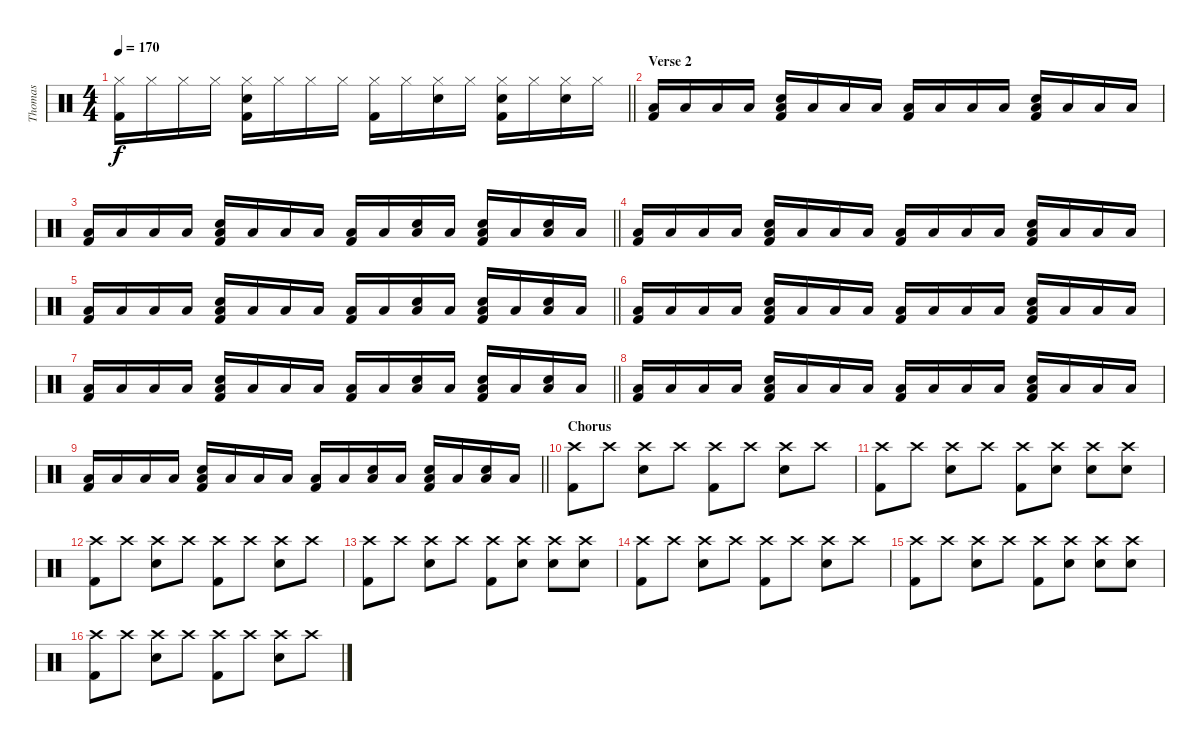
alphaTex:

\track ("Thomas" "Thomas") {instrument percussion}
\staff {score}
\articulation defaults
\ts (4 4)
\tempo 170
\clef neutral
\barLineRight lightlight
\ks c
("Hi-Hat (closed)" "Kick (hit) 2").16{dy f} "Hi-Hat (closed)".16 "Hi-Hat (closed)".16 "Hi-Hat (closed)".16 ("Hi-Hat (closed)" "Snare (hit) 2" "Kick (hit) 2").16 "Hi-Hat (closed)".16 "Hi-Hat (closed)".16 "Hi-Hat (closed)".16 ("Hi-Hat (closed)" "Kick (hit) 2").16 "Hi-Hat (closed)".16 ("Hi-Hat (closed)" "Snare (hit) 2").16 "Hi-Hat (closed)".16 ("Hi-Hat (closed)" "Snare (hit) 2" "Kick (hit) 2").16 "Hi-Hat (closed)".16 ("Hi-Hat (closed)" "Snare (hit) 2").16 "Hi-Hat (closed)".16 |
\section ("" "Verse 2")
("Low Floor Tom (hit)" "Kick (hit) 2").16 "Low Floor Tom (hit)".16 "Low Floor Tom (hit)".16 "Low Floor Tom (hit)".16 ("Low Floor Tom (hit)" "Snare (hit) 2" "Kick (hit) 2").16 "Low Floor Tom (hit)".16 "Low Floor Tom (hit)".16 "Low Floor Tom (hit)".16 ("Low Floor Tom (hit)" "Kick (hit) 2").16 "Low Floor Tom (hit)".16 "Low Floor Tom (hit)".16 "Low Floor Tom (hit)".16 ("Low Floor Tom (hit)" "Snare (hit) 2" "Kick (hit) 2").16 "Low Floor Tom (hit)".16 "Low Floor Tom (hit)".16 "Low Floor Tom (hit)".16 |
\barLineRight lightlight
("Low Floor Tom (hit)" "Kick (hit) 2").16 "Low Floor Tom (hit)".16 "Low Floor Tom (hit)".16 "Low Floor Tom (hit)".16 ("Low Floor Tom (hit)" "Snare (hit) 2" "Kick (hit) 2").16 "Low Floor Tom (hit)".16 "Low Floor Tom (hit)".16 "Low Floor Tom (hit)".16 ("Low Floor Tom (hit)" "Kick (hit) 2").16 "Low Floor Tom (hit)".16 ("Low Floor Tom (hit)" "Snare (hit) 2").16 "Low Floor Tom (hit)".16 ("Low Floor Tom (hit)" "Snare (hit) 2" "Kick (hit) 2").16 "Low Floor Tom (hit)".16 ("Low Floor Tom (hit)" "Snare (hit) 2").16 "Low Floor Tom (hit)".16 |
("Low Floor Tom (hit)" "Kick (hit) 2").16 "Low Floor Tom (hit)".16 "Low Floor Tom (hit)".16 "Low Floor Tom (hit)".16 ("Low Floor Tom (hit)" "Snare (hit) 2" "Kick (hit) 2").16 "Low Floor Tom (hit)".16 "Low Floor Tom (hit)".16 "Low Floor Tom (hit)".16 ("Low Floor Tom (hit)" "Kick (hit) 2").16 "Low Floor Tom (hit)".16 "Low Floor Tom (hit)".16 "Low Floor Tom (hit)".16 ("Low Floor Tom (hit)" "Snare (hit) 2" "Kick (hit) 2").16 "Low Floor Tom (hit)".16 "Low Floor Tom (hit)".16 "Low Floor Tom (hit)".16 |
\barLineRight lightlight
("Low Floor Tom (hit)" "Kick (hit) 2").16 "Low Floor Tom (hit)".16 "Low Floor Tom (hit)".16 "Low Floor Tom (hit)".16 ("Low Floor Tom (hit)" "Snare (hit) 2" "Kick (hit) 2").16 "Low Floor Tom (hit)".16 "Low Floor Tom (hit)".16 "Low Floor Tom (hit)".16 ("Low Floor Tom (hit)" "Kick (hit) 2").16 "Low Floor Tom (hit)".16 ("Low Floor Tom (hit)" "Snare (hit) 2").16 "Low Floor Tom (hit)".16 ("Low Floor Tom (hit)" "Snare (hit) 2" "Kick (hit) 2").16 "Low Floor Tom (hit)".16 ("Low Floor Tom (hit)" "Snare (hit) 2").16 "Low Floor Tom (hit)".16 |
("Low Floor Tom (hit)" "Kick (hit) 2").16 "Low Floor Tom (hit)".16 "Low Floor Tom (hit)".16 "Low Floor Tom (hit)".16 ("Low Floor Tom (hit)" "Snare (hit) 2" "Kick (hit) 2").16 "Low Floor Tom (hit)".16 "Low Floor Tom (hit)".16 "Low Floor Tom (hit)".16 ("Low Floor Tom (hit)" "Kick (hit) 2").16 "Low Floor Tom (hit)".16 "Low Floor Tom (hit)".16 "Low Floor Tom (hit)".16 ("Low Floor Tom (hit)" "Snare (hit) 2" "Kick (hit) 2").16 "Low Floor Tom (hit)".16 "Low Floor Tom (hit)".16 "Low Floor Tom (hit)".16 |
\barLineRight lightlight
("Low Floor Tom (hit)" "Kick (hit) 2").16 "Low Floor Tom (hit)".16 "Low Floor Tom (hit)".16 "Low Floor Tom (hit)".16 ("Low Floor Tom (hit)" "Snare (hit) 2" "Kick (hit) 2").16 "Low Floor Tom (hit)".16 "Low Floor Tom (hit)".16 "Low Floor Tom (hit)".16 ("Low Floor Tom (hit)" "Kick (hit) 2").16 "Low Floor Tom (hit)".16 ("Low Floor Tom (hit)" "Snare (hit) 2").16 "Low Floor Tom (hit)".16 ("Low Floor Tom (hit)" "Snare (hit) 2" "Kick (hit) 2").16 "Low Floor Tom (hit)".16 ("Low Floor Tom (hit)" "Snare (hit) 2").16 "Low Floor Tom (hit)".16 |
("Low Floor Tom (hit)" "Kick (hit) 2").16 "Low Floor Tom (hit)".16 "Low Floor Tom (hit)".16 "Low Floor Tom (hit)".16 ("Low Floor Tom (hit)" "Snare (hit) 2" "Kick (hit) 2").16 "Low Floor Tom (hit)".16 "Low Floor Tom (hit)".16 "Low Floor Tom (hit)".16 ("Low Floor Tom (hit)" "Kick (hit) 2").16 "Low Floor Tom (hit)".16 "Low Floor Tom (hit)".16 "Low Floor Tom (hit)".16 ("Low Floor Tom (hit)" "Snare (hit) 2" "Kick (hit) 2").16 "Low Floor Tom (hit)".16 "Low Floor Tom (hit)".16 "Low Floor Tom (hit)".16 |
\barLineRight lightlight
("Low Floor Tom (hit)" "Kick (hit) 2").16 "Low Floor Tom (hit)".16 "Low Floor Tom (hit)".16 "Low Floor Tom (hit)".16 ("Low Floor Tom (hit)" "Snare (hit) 2" "Kick (hit) 2").16 "Low Floor Tom (hit)".16 "Low Floor Tom (hit)".16 "Low Floor Tom (hit)".16 ("Low Floor Tom (hit)" "Kick (hit) 2").16 "Low Floor Tom (hit)".16 ("Low Floor Tom (hit)" "Snare (hit) 2").16 "Low Floor Tom (hit)".16 ("Low Floor Tom (hit)" "Snare (hit) 2" "Kick (hit) 2").16 "Low Floor Tom (hit)".16 ("Low Floor Tom (hit)" "Snare (hit) 2").16 "Low Floor Tom (hit)".16 |
\section ("" "Chorus")
("Crash high (hit)" "Kick (hit) 2").8 "Crash high (hit)".8 ("Crash high (hit)" "Snare (hit) 2").8 "Crash high (hit)".8 ("Crash high (hit)" "Kick (hit) 2").8 "Crash high (hit)".8 ("Crash high (hit)" "Snare (hit) 2").8 "Crash high (hit)".8 |
("Crash high (hit)" "Kick (hit) 2").8 "Crash high (hit)".8 ("Crash high (hit)" "Snare (hit) 2").8 "Crash high (hit)".8 ("Crash high (hit)" "Kick (hit) 2").8 ("Crash high (hit)" "Snare (hit) 2").8 ("Crash high (hit)" "Snare (hit) 2").8 ("Crash high (hit)" "Snare (hit) 2").8 |
("Crash high (hit)" "Kick (hit) 2").8 "Crash high (hit)".8 ("Crash high (hit)" "Snare (hit) 2").8 "Crash high (hit)".8 ("Crash high (hit)" "Kick (hit) 2").8 "Crash high (hit)".8 ("Crash high (hit)" "Snare (hit) 2").8 "Crash high (hit)".8 |
("Crash high (hit)" "Kick (hit) 2").8 "Crash high (hit)".8 ("Crash high (hit)" "Snare (hit) 2").8 "Crash high (hit)".8 ("Crash high (hit)" "Kick (hit) 2").8 ("Crash high (hit)" "Snare (hit) 2").8 ("Crash high (hit)" "Snare (hit) 2").8 ("Crash high (hit)" "Snare (hit) 2").8 |
("Crash high (hit)" "Kick (hit) 2").8 "Crash high (hit)".8 ("Crash high (hit)" "Snare (hit) 2").8 "Crash high (hit)".8 ("Crash high (hit)" "Kick (hit) 2").8 "Crash high (hit)".8 ("Crash high (hit)" "Snare (hit) 2").8 "Crash high (hit)".8 |
("Crash high (hit)" "Kick (hit) 2").8 "Crash high (hit)".8 ("Crash high (hit)" "Snare (hit) 2").8 "Crash high (hit)".8 ("Crash high (hit)" "Kick (hit) 2").8 ("Crash high (hit)" "Snare (hit) 2").8 ("Crash high (hit)" "Snare (hit) 2").8 ("Crash high (hit)" "Snare (hit) 2").8 |
("Crash high (hit)" "Kick (hit) 2").8 "Crash high (hit)".8 ("Crash high (hit)" "Snare (hit) 2").8 "Crash high (hit)".8 ("Crash high (hit)" "Kick (hit) 2").8 "Crash high (hit)".8 ("Crash high (hit)" "Snare (hit) 2").8 "Crash high (hit)".8
